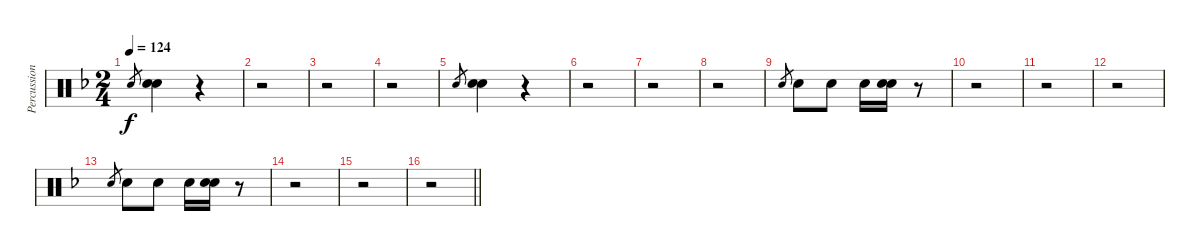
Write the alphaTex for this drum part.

\track ("Percussions" "Percussion") {instrument percussion}
\staff {score}
\articulation defaults
\ts (2 4)
\tempo 124
\clef neutral
\ks dminor "Snare (hit) 2".8{gr dy f}
("Snare (hit) 2" "Electric Snare (hit)").4 r.4 |
r.2 |
r.2 |
r.2 |
"Snare (hit) 2".8{gr} ("Snare (hit) 2" "Electric Snare (hit)").4 r.4 |
r.2 |
r.2 |
r.2 |
"Snare (hit) 2".8{gr} "Snare (hit) 2".8 "Snare (hit) 2".8 "Snare (hit) 2".16 ("Snare (hit) 2" "Electric Snare (hit)").16 r.8 |
r.2 |
r.2 |
r.2 |
"Snare (hit) 2".8{gr} "Snare (hit) 2".8 "Snare (hit) 2".8 "Snare (hit) 2".16 ("Snare (hit) 2" "Electric Snare (hit)").16 r.8 |
r.2 |
r.2 |
\barLineRight lightlight
r.2
